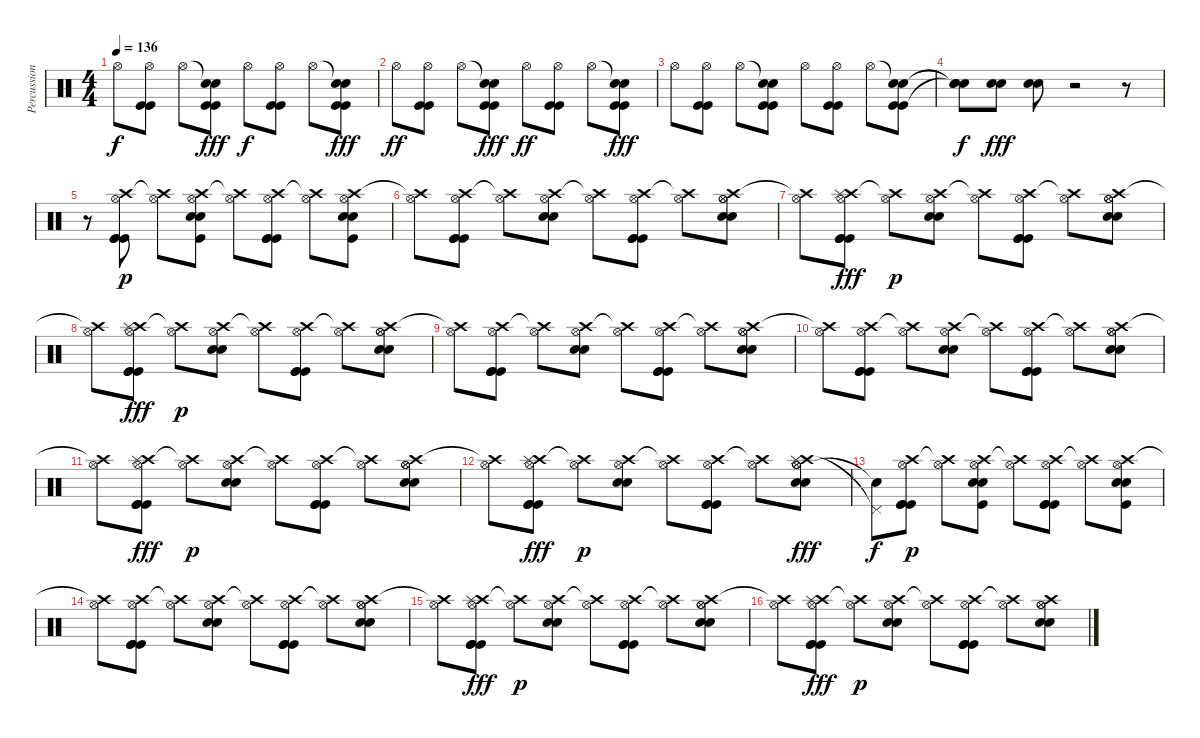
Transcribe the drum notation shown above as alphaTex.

\track ("Percussions" "Percussion") {instrument percussion}
\staff {score}
\articulation defaults
\ts (4 4)
\tempo 136
\clef neutral
\ks c "Hi-Hat (open)".8{dy f}
("Hi-Hat (open)" "Kick (hit)" "Kick (hit)").8 "Hi-Hat (open)".8 ("Snare (hit)"{t} "Snare (hit) 2" "Kick (hit)" "Kick (hit)").8{dy fff} "Hi-Hat (open)".8{dy f} ("Hi-Hat (open)" "Kick (hit)" "Kick (hit)").8 "Hi-Hat (open)".8 ("Snare (hit)"{t} "Snare (hit) 2" "Kick (hit)" "Kick (hit)").8{dy fff} |
"Hi-Hat (open)".8{dy ff} ("Hi-Hat (open)" "Kick (hit)" "Kick (hit)").8 "Hi-Hat (open)".8 ("Snare (hit)"{t} "Snare (hit) 2" "Kick (hit)" "Kick (hit)").8{dy fff} "Hi-Hat (open)".8{dy ff} ("Hi-Hat (open)" "Kick (hit)" "Kick (hit)").8 "Hi-Hat (open)".8 ("Snare (hit)"{t} "Snare (hit) 2" "Kick (hit)" "Kick (hit)").8{dy fff} |
"Hi-Hat (open)".8 ("Hi-Hat (open)" "Kick (hit)" "Kick (hit)").8 "Hi-Hat (open)".8 ("Snare (hit)"{t} "Snare (hit) 2" "Kick (hit)" "Kick (hit)").8 "Hi-Hat (open)".8 ("Hi-Hat (open)" "Kick (hit)" "Kick (hit)").8 "Hi-Hat (open)".8 ("Snare (hit)"{t} "Snare (hit) 2" "Kick (hit)" "Kick (hit)").8 |
("Snare (hit) 2"{t} "Snare (hit)"{t} "Snare (hit)"{t}).8{dy f} ("Snare (hit) 2" "Snare (hit) 2").8{dy fff} ("Snare (hit) 2" "Snare (hit) 2").8 r.2 r.8 |
r.8 ("Crash high (hit)" "Hi-Hat (open)" "Kick (hit)" "Kick (hit)" "Kick (hit)").8{dy p} ("Crash high (hit)"{t} "Hi-Hat (open)").8 ("Crash high (hit)" "Hi-Hat (open)" "Snare (hit) 2" "Snare (hit) 2" "Kick (hit)").8 ("Crash high (hit)"{t} "Hi-Hat (open)").8 ("Crash high (hit)" "Hi-Hat (open)" "Kick (hit)" "Kick (hit)" "Kick (hit)").8 ("Crash high (hit)"{t} "Hi-Hat (open)").8 ("Crash high (hit)" "Hi-Hat (open)" "Snare (hit) 2" "Snare (hit) 2" "Kick (hit)").8 |
("Crash high (hit)"{t} "Hi-Hat (open)").8 ("Crash high (hit)" "Hi-Hat (open)" "Kick (hit)" "Kick (hit)" "Kick (hit)").8 ("Crash high (hit)"{t} "Hi-Hat (open)").8 ("Crash high (hit)" "Hi-Hat (open)" "Snare (hit) 2" "Snare (hit) 2").8 ("Crash high (hit)"{t} "Hi-Hat (open)").8 ("Crash high (hit)" "Hi-Hat (open)" "Kick (hit)" "Kick (hit)" "Kick (hit)").8 ("Crash high (hit)"{t} "Hi-Hat (open)").8 ("Crash high (hit)" "Hi-Hat (open)" "Snare (hit) 2" "Snare (hit) 2" "Hi-Hat (open)").8 |
("Crash high (hit)"{t} "Hi-Hat (open)").8 ("Crash high (hit)" "Hi-Hat (open)" "Splash (hit)" "Kick (hit)" "Kick (hit)" "Kick (hit)").8{dy fff} ("Crash high (hit)"{t} "Hi-Hat (open)").8{dy p} ("Crash high (hit)" "Hi-Hat (open)" "Snare (hit) 2" "Snare (hit) 2").8 ("Crash high (hit)"{t} "Hi-Hat (open)").8 ("Crash high (hit)" "Hi-Hat (open)" "Kick (hit)" "Kick (hit)" "Kick (hit)").8 ("Crash high (hit)"{t} "Hi-Hat (open)").8 ("Crash high (hit)" "Hi-Hat (open)" "Snare (hit) 2" "Snare (hit) 2" "Hi-Hat (open)").8 |
("Crash high (hit)"{t} "Hi-Hat (open)").8 ("Crash high (hit)" "Hi-Hat (open)" "Splash (hit)" "Kick (hit)" "Kick (hit)" "Kick (hit)").8{dy fff} ("Crash high (hit)"{t} "Hi-Hat (open)").8{dy p} ("Crash high (hit)" "Hi-Hat (open)" "Snare (hit) 2" "Snare (hit) 2").8 ("Crash high (hit)"{t} "Hi-Hat (open)").8 ("Crash high (hit)" "Hi-Hat (open)" "Kick (hit)" "Kick (hit)" "Kick (hit)").8 ("Crash high (hit)"{t} "Hi-Hat (open)").8 ("Crash high (hit)" "Hi-Hat (open)" "Snare (hit) 2" "Snare (hit) 2" "Hi-Hat (open)").8 |
("Crash high (hit)"{t} "Hi-Hat (open)").8 ("Crash high (hit)" "Hi-Hat (open)" "Kick (hit)" "Kick (hit)" "Kick (hit)").8 ("Crash high (hit)"{t} "Hi-Hat (open)").8 ("Crash high (hit)" "Hi-Hat (open)" "Snare (hit) 2" "Snare (hit) 2").8 ("Crash high (hit)"{t} "Hi-Hat (open)").8 ("Crash high (hit)" "Hi-Hat (open)" "Kick (hit)" "Kick (hit)" "Kick (hit)").8 ("Crash high (hit)"{t} "Hi-Hat (open)").8 ("Crash high (hit)" "Hi-Hat (open)" "Snare (hit) 2" "Snare (hit) 2" "Hi-Hat (open)").8 |
("Crash high (hit)"{t} "Hi-Hat (open)").8 ("Crash high (hit)" "Hi-Hat (open)" "Kick (hit)" "Kick (hit)" "Kick (hit)").8 ("Crash high (hit)"{t} "Hi-Hat (open)").8 ("Crash high (hit)" "Hi-Hat (open)" "Snare (hit) 2" "Snare (hit) 2").8 ("Crash high (hit)"{t} "Hi-Hat (open)").8 ("Crash high (hit)" "Hi-Hat (open)" "Kick (hit)" "Kick (hit)" "Kick (hit)").8 ("Crash high (hit)"{t} "Hi-Hat (open)").8 ("Crash high (hit)" "Hi-Hat (open)" "Snare (hit) 2" "Snare (hit) 2" "Hi-Hat (open)").8 |
("Crash high (hit)"{t} "Hi-Hat (open)").8 ("Crash high (hit)" "Hi-Hat (open)" "Splash (hit)" "Kick (hit)" "Kick (hit)" "Kick (hit)").8{dy fff} ("Crash high (hit)"{t} "Hi-Hat (open)").8{dy p} ("Crash high (hit)" "Hi-Hat (open)" "Snare (hit) 2" "Snare (hit) 2").8 ("Crash high (hit)"{t} "Hi-Hat (open)").8 ("Crash high (hit)" "Hi-Hat (open)" "Kick (hit)" "Kick (hit)" "Kick (hit)").8 ("Crash high (hit)"{t} "Hi-Hat (open)").8 ("Crash high (hit)" "Hi-Hat (open)" "Snare (hit) 2" "Snare (hit) 2" "Hi-Hat (open)").8 |
("Crash high (hit)"{t} "Hi-Hat (open)").8 ("Crash high (hit)" "Hi-Hat (open)" "Splash (hit)" "Kick (hit)" "Kick (hit)" "Kick (hit)").8{dy fff} ("Crash high (hit)"{t} "Hi-Hat (open)").8{dy p} ("Crash high (hit)" "Hi-Hat (open)" "Snare (hit) 2" "Snare (hit) 2").8 ("Crash high (hit)"{t} "Hi-Hat (open)").8 ("Crash high (hit)" "Hi-Hat (open)" "Kick (hit)" "Kick (hit)" "Kick (hit)").8 ("Crash high (hit)"{t} "Hi-Hat (open)").8 ("Crash high (hit)" "Hi-Hat (open)" "Snare (hit) 2" "Snare (hit) 2" "Hi-Hat (open)" "Splash (hit)").8{dy fff} |
("Pedal Hi-Hat (hit)"{t} "Snare (hit)"{t}).8{dy f} ("Crash high (hit)" "Hi-Hat (open)" "Kick (hit)" "Kick (hit)" "Kick (hit)").8{dy p} ("Crash high (hit)"{t} "Hi-Hat (open)").8 ("Crash high (hit)" "Hi-Hat (open)" "Snare (hit) 2" "Snare (hit) 2" "Kick (hit)").8 ("Crash high (hit)"{t} "Hi-Hat (open)").8 ("Crash high (hit)" "Hi-Hat (open)" "Kick (hit)" "Kick (hit)" "Kick (hit)").8 ("Crash high (hit)"{t} "Hi-Hat (open)").8 ("Crash high (hit)" "Hi-Hat (open)" "Snare (hit) 2" "Snare (hit) 2" "Kick (hit)").8 |
("Crash high (hit)"{t} "Hi-Hat (open)").8 ("Crash high (hit)" "Hi-Hat (open)" "Kick (hit)" "Kick (hit)" "Kick (hit)").8 ("Crash high (hit)"{t} "Hi-Hat (open)").8 ("Crash high (hit)" "Hi-Hat (open)" "Snare (hit) 2" "Snare (hit) 2").8 ("Crash high (hit)"{t} "Hi-Hat (open)").8 ("Crash high (hit)" "Hi-Hat (open)" "Kick (hit)" "Kick (hit)" "Kick (hit)").8 ("Crash high (hit)"{t} "Hi-Hat (open)").8 ("Crash high (hit)" "Hi-Hat (open)" "Snare (hit) 2" "Snare (hit) 2" "Hi-Hat (open)").8 |
("Crash high (hit)"{t} "Hi-Hat (open)").8 ("Crash high (hit)" "Hi-Hat (open)" "Splash (hit)" "Kick (hit)" "Kick (hit)" "Kick (hit)").8{dy fff} ("Crash high (hit)"{t} "Hi-Hat (open)").8{dy p} ("Crash high (hit)" "Hi-Hat (open)" "Snare (hit) 2" "Snare (hit) 2").8 ("Crash high (hit)"{t} "Hi-Hat (open)").8 ("Crash high (hit)" "Hi-Hat (open)" "Kick (hit)" "Kick (hit)" "Kick (hit)").8 ("Crash high (hit)"{t} "Hi-Hat (open)").8 ("Crash high (hit)" "Hi-Hat (open)" "Snare (hit) 2" "Snare (hit) 2" "Hi-Hat (open)").8 |
("Crash high (hit)"{t} "Hi-Hat (open)").8 ("Crash high (hit)" "Hi-Hat (open)" "Splash (hit)" "Kick (hit)" "Kick (hit)" "Kick (hit)").8{dy fff} ("Crash high (hit)"{t} "Hi-Hat (open)").8{dy p} ("Crash high (hit)" "Hi-Hat (open)" "Snare (hit) 2" "Snare (hit) 2").8 ("Crash high (hit)"{t} "Hi-Hat (open)").8 ("Crash high (hit)" "Hi-Hat (open)" "Kick (hit)" "Kick (hit)" "Kick (hit)").8 ("Crash high (hit)"{t} "Hi-Hat (open)").8 ("Crash high (hit)" "Hi-Hat (open)" "Snare (hit) 2" "Snare (hit) 2" "Hi-Hat (open)").8
